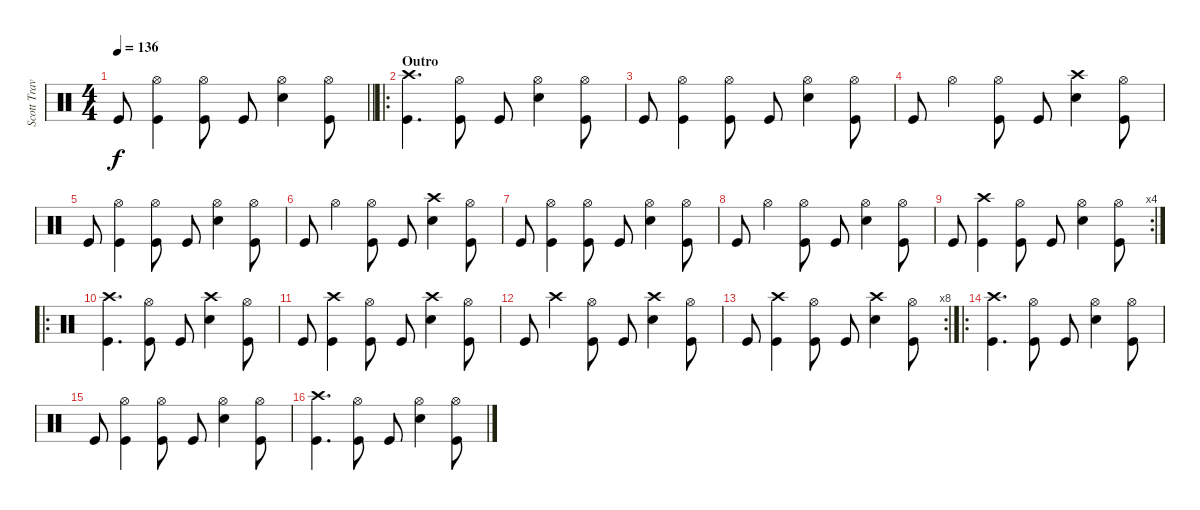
\track ("Scott Travis" "Scott Trav") {instrument percussion}
\staff {score}
\articulation defaults
\ts (4 4)
\tempo 136
\clef neutral
\barLineRight lightlight
\ks c "Kick (hit)".8{dy f}
("Hi-Hat (open)" "Kick (hit)").4 ("Hi-Hat (open)" "Kick (hit)").8 "Kick (hit)".8 ("Hi-Hat (open)" "Electric Snare (hit)").4 ("Hi-Hat (open)" "Kick (hit)").8 |
\ro
\section ("" "Outro")
("Crash high (hit)" "Kick (hit)").4{d} ("Hi-Hat (open)" "Kick (hit)").8 "Kick (hit)".8 ("Hi-Hat (open)" "Electric Snare (hit)").4 ("Hi-Hat (open)" "Kick (hit)").8 |
"Kick (hit)".8 ("Hi-Hat (open)" "Kick (hit)").4 ("Hi-Hat (open)" "Kick (hit)").8 "Kick (hit)".8 ("Hi-Hat (open)" "Electric Snare (hit)").4 ("Hi-Hat (open)" "Kick (hit)").8 |
"Kick (hit)".8 "Hi-Hat (open)".4 ("Hi-Hat (open)" "Kick (hit)").8 "Kick (hit)".8 ("Crash high (hit)" "Electric Snare (hit)").4 ("Hi-Hat (open)" "Kick (hit)").8 |
"Kick (hit)".8 ("Hi-Hat (open)" "Kick (hit)").4 ("Hi-Hat (open)" "Kick (hit)").8 "Kick (hit)".8 ("Hi-Hat (open)" "Electric Snare (hit)").4 ("Hi-Hat (open)" "Kick (hit)").8 |
"Kick (hit)".8 "Hi-Hat (open)".4 ("Hi-Hat (open)" "Kick (hit)").8 "Kick (hit)".8 ("Crash high (hit)" "Electric Snare (hit)").4 ("Hi-Hat (open)" "Kick (hit)").8 |
"Kick (hit)".8 ("Hi-Hat (open)" "Kick (hit)").4 ("Hi-Hat (open)" "Kick (hit)").8 "Kick (hit)".8 ("Hi-Hat (open)" "Electric Snare (hit)").4 ("Hi-Hat (open)" "Kick (hit)").8 |
"Kick (hit)".8 "Hi-Hat (open)".4 ("Hi-Hat (open)" "Kick (hit)").8 "Kick (hit)".8 ("Hi-Hat (open)" "Electric Snare (hit)").4 ("Hi-Hat (open)" "Kick (hit)").8 |
\rc 4 "Kick (hit)".8
("Crash high (hit)" "Kick (hit)").4 ("Hi-Hat (open)" "Kick (hit)").8 "Kick (hit)".8 ("Hi-Hat (open)" "Electric Snare (hit)").4 ("Hi-Hat (open)" "Kick (hit)").8 |
\ro
("Crash high (hit)" "Kick (hit)").4{d} ("Hi-Hat (open)" "Kick (hit)").8 "Kick (hit)".8 ("Crash high (hit)" "Electric Snare (hit)").4 ("Hi-Hat (open)" "Kick (hit)").8 |
"Kick (hit)".8 ("Crash high (hit)" "Kick (hit)").4 ("Hi-Hat (open)" "Kick (hit)").8 "Kick (hit)".8 ("Crash high (hit)" "Electric Snare (hit)").4 ("Hi-Hat (open)" "Kick (hit)").8 |
"Kick (hit)".8 "Crash high (hit)".4 ("Hi-Hat (open)" "Kick (hit)").8 "Kick (hit)".8 ("Crash high (hit)" "Electric Snare (hit)").4 ("Hi-Hat (open)" "Kick (hit)").8 |
\rc 8 "Kick (hit)".8
("Crash high (hit)" "Kick (hit)").4 ("Hi-Hat (open)" "Kick (hit)").8 "Kick (hit)".8 ("Crash high (hit)" "Electric Snare (hit)").4 ("Hi-Hat (open)" "Kick (hit)").8 |
\ro
("Crash high (hit)" "Kick (hit)").4{d} ("Hi-Hat (open)" "Kick (hit)").8 "Kick (hit)".8 ("Hi-Hat (open)" "Electric Snare (hit)").4 ("Hi-Hat (open)" "Kick (hit)").8 |
"Kick (hit)".8 ("Hi-Hat (open)" "Kick (hit)").4 ("Hi-Hat (open)" "Kick (hit)").8 "Kick (hit)".8 ("Hi-Hat (open)" "Electric Snare (hit)").4 ("Hi-Hat (open)" "Kick (hit)").8 |
("Crash high (hit)" "Kick (hit)").4{d} ("Hi-Hat (open)" "Kick (hit)").8 "Kick (hit)".8 ("Hi-Hat (open)" "Electric Snare (hit)").4 ("Hi-Hat (open)" "Kick (hit)").8
